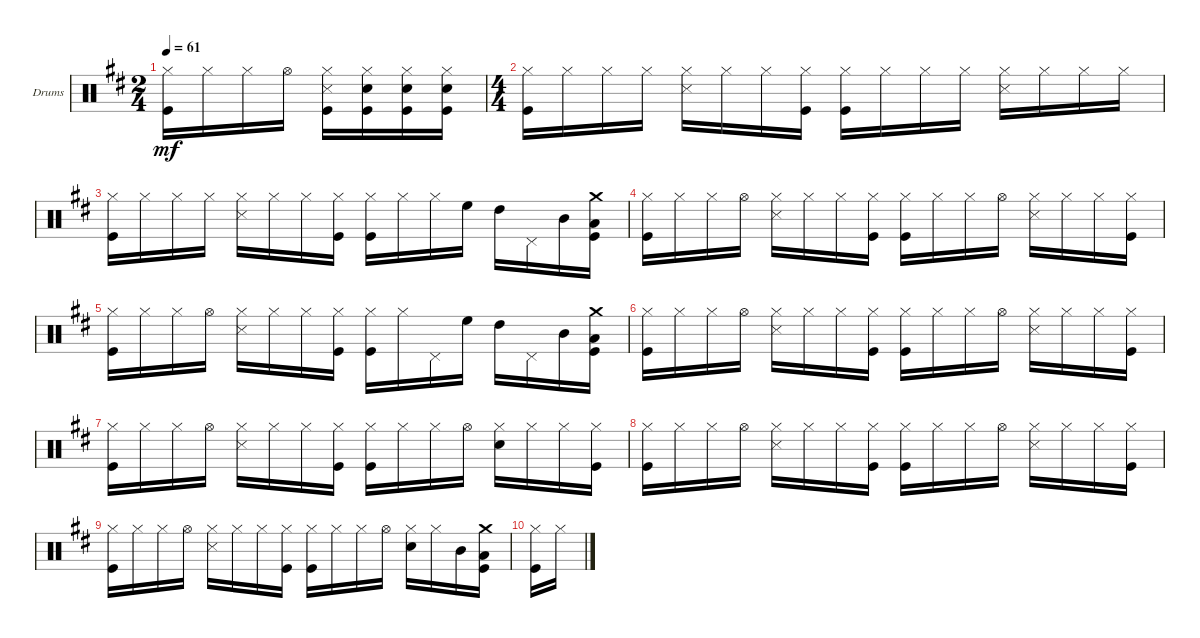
\defaultSystemsLayout 4
\bracketExtendMode groupsimilarinstruments
\firstSystemTrackNameOrientation horizontal
\otherSystemsTrackNameOrientation horizontal
\track ("Drumkit" "Drums") {multiBarRest instrument percussion}
\staff {score}
\articulation defaults
\ts (2 4)
\tempo 61
\clef neutral
\scale
0.404682
\ks d
("Hi-Hat (closed)" "Kick (hit)").16{dy mf} "Hi-Hat (closed)".16 "Hi-Hat (closed)".16 "Hi-Hat (open)".16 ("Hi-Hat (closed)" "Snare (side stick) 3" "Kick (hit)").16 ("Hi-Hat (closed)" "Kick (hit)" "Snare (hit) 2").16 ("Hi-Hat (closed)" "Kick (hit)" "Snare (hit) 2").16 ("Hi-Hat (closed)" "Kick (hit)" "Snare (hit) 2").16 |
\ts (4 4)
\scale
0.404682 ("Kick (hit)" "Hi-Hat (closed)").16 "Hi-Hat (closed)".16 "Hi-Hat (closed)".16 "Hi-Hat (closed)".16 ("Snare (side stick) 3" "Hi-Hat (closed)").16 "Hi-Hat (closed)".16 "Hi-Hat (closed)".16 ("Kick (hit)" "Hi-Hat (closed)").16 ("Kick (hit)" "Hi-Hat (closed)").16 "Hi-Hat (closed)".16 "Hi-Hat (closed)".16 "Hi-Hat (closed)".16 ("Snare (side stick) 3" "Hi-Hat (closed)").16 "Hi-Hat (closed)".16 "Hi-Hat (closed)".16 "Hi-Hat (closed)".16 |
\scale
0.190635 ("Kick (hit)" "Hi-Hat (closed)").16 "Hi-Hat (closed)".16 "Hi-Hat (closed)".16 "Hi-Hat (closed)".16 ("Snare (side stick) 3" "Hi-Hat (closed)").16 "Hi-Hat (closed)".16 "Hi-Hat (closed)".16 ("Kick (hit)" "Hi-Hat (closed)").16 ("Kick (hit)" "Hi-Hat (closed)").16 "Hi-Hat (closed)".16 "Hi-Hat (closed)".16 "High Floor Tom (hit)".16 "High Tom (hit)".16 "Pedal Hi-Hat (hit)".16 "Mid Tom (hit)".16 ("Kick (hit)" "Low Tom (hit)" "Crash medium (hit)").16 |
\scale
0.333333 ("Hi-Hat (closed)" "Kick (hit)").16 "Hi-Hat (closed)".16 "Hi-Hat (closed)".16 "Hi-Hat (open)".16 ("Hi-Hat (closed)" "Snare (side stick) 3").16 "Hi-Hat (closed)".16 "Hi-Hat (closed)".16 ("Hi-Hat (closed)" "Kick (hit)").16 ("Hi-Hat (closed)" "Kick (hit)").16 "Hi-Hat (closed)".16 "Hi-Hat (closed)".16 "Hi-Hat (open)".16 ("Hi-Hat (closed)" "Snare (side stick) 3").16 "Hi-Hat (closed)".16 "Hi-Hat (closed)".16 ("Hi-Hat (closed)" "Kick (hit)").16 |
\scale
0.333333 ("Hi-Hat (closed)" "Kick (hit)").16 "Hi-Hat (closed)".16 "Hi-Hat (closed)".16 "Hi-Hat (open)".16 ("Hi-Hat (closed)" "Snare (side stick) 3").16 "Hi-Hat (closed)".16 "Hi-Hat (closed)".16 ("Hi-Hat (closed)" "Kick (hit)").16 ("Hi-Hat (closed)" "Kick (hit)").16 "Hi-Hat (closed)".16 "Pedal Hi-Hat (hit)".16 "High Floor Tom (hit)".16 "High Tom (hit)".16 "Pedal Hi-Hat (hit)".16 "Mid Tom (hit)".16 ("Kick (hit)" "Low Tom (hit)" "Crash medium (hit)").16 |
\scale
0.333333 ("Hi-Hat (closed)" "Kick (hit)").16 "Hi-Hat (closed)".16 "Hi-Hat (closed)".16 "Hi-Hat (open)".16 ("Hi-Hat (closed)" "Snare (side stick) 3").16 "Hi-Hat (closed)".16 "Hi-Hat (closed)".16 ("Hi-Hat (closed)" "Kick (hit)").16 ("Hi-Hat (closed)" "Kick (hit)").16 "Hi-Hat (closed)".16 "Hi-Hat (closed)".16 "Hi-Hat (open)".16 ("Hi-Hat (closed)" "Snare (side stick) 3").16 "Hi-Hat (closed)".16 "Hi-Hat (closed)".16 ("Hi-Hat (closed)" "Kick (hit)").16 |
\scale
0.333333 ("Hi-Hat (closed)" "Kick (hit)").16 "Hi-Hat (closed)".16 "Hi-Hat (closed)".16 "Hi-Hat (open)".16 ("Hi-Hat (closed)" "Snare (side stick) 3").16 "Hi-Hat (closed)".16 "Hi-Hat (closed)".16 ("Hi-Hat (closed)" "Kick (hit)").16 ("Hi-Hat (closed)" "Kick (hit)").16 "Hi-Hat (closed)".16 "Hi-Hat (closed)".16 "Hi-Hat (open)".16 ("Hi-Hat (closed)" "Snare (hit) 2").16 "Hi-Hat (closed)".16 "Hi-Hat (closed)".16 ("Hi-Hat (closed)" "Kick (hit)").16 |
\scale
0.333333 ("Hi-Hat (closed)" "Kick (hit)").16 "Hi-Hat (closed)".16 "Hi-Hat (closed)".16 "Hi-Hat (open)".16 ("Hi-Hat (closed)" "Snare (side stick) 3").16 "Hi-Hat (closed)".16 "Hi-Hat (closed)".16 ("Hi-Hat (closed)" "Kick (hit)").16 ("Hi-Hat (closed)" "Kick (hit)").16 "Hi-Hat (closed)".16 "Hi-Hat (closed)".16 "Hi-Hat (open)".16 ("Hi-Hat (closed)" "Snare (side stick) 3").16 "Hi-Hat (closed)".16 "Hi-Hat (closed)".16 ("Hi-Hat (closed)" "Kick (hit)").16 |
\scale
0.333333 ("Hi-Hat (closed)" "Kick (hit)").16 "Hi-Hat (closed)".16 "Hi-Hat (closed)".16 "Hi-Hat (open)".16 ("Hi-Hat (closed)" "Snare (side stick) 3").16 "Hi-Hat (closed)".16 "Hi-Hat (closed)".16 ("Hi-Hat (closed)" "Kick (hit)").16 ("Hi-Hat (closed)" "Kick (hit)").16 "Hi-Hat (closed)".16 "Hi-Hat (closed)".16 "Hi-Hat (open)".16 ("Hi-Hat (closed)" "Snare (hit) 2").16 "Hi-Hat (closed)".16 "Mid Tom (hit)".16 ("Kick (hit)" "Low Tom (hit)" "Crash medium (hit)").16 |
("Hi-Hat (closed)" "Kick (hit)").16 "Hi-Hat (closed)".16
